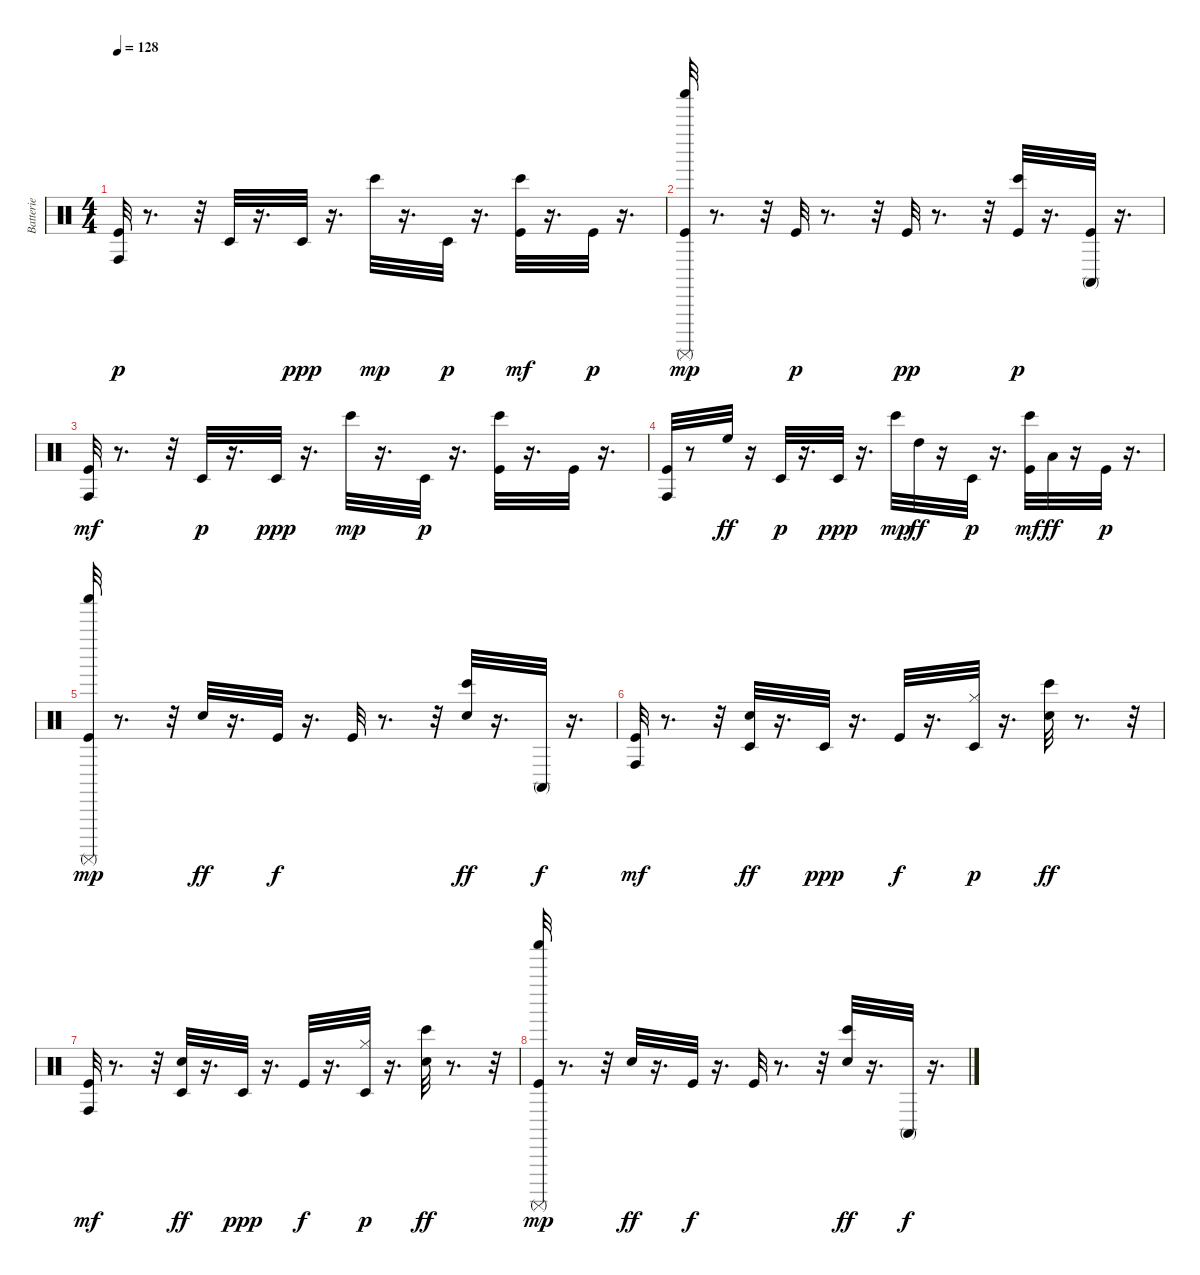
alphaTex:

\track ("Batterie" "Batterie") {instrument percussion}
\staff {score}
\articulation defaults
\ts (4 4)
\tempo 128
\clef neutral
\ks c
("Conga high (hit)" "Kick (hit)").32{dy p} r.8{d} r.32 "Timbale low (hit)".32 r.16{d} "Timbale low (hit)".32{dy ppp} r.16{d} "Bongo High (hit)".32{dy mp} r.16{d} "Timbale low (hit)".32{dy p} r.16{d} ("Kick (hit)" "Bongo High (hit)").32{dy mf} r.16{d} "Kick (hit)".32{dy p} r.16{d} |
("Kick (hit)" "Shaker (hit)" "Surdo (mute)").32{dy mp} r.8{d} r.32 "Kick (hit)".32{dy p} r.8{d} r.32 "Kick (hit)".32{dy pp} r.8{d} r.32 ("Bongo High (hit)" "Kick (hit)").32{dy p} r.16{d} ("Conga high (mute)" "Kick (hit)").32 r.16{d} |
("Kick (hit)" "Conga high (hit)").32{dy mf} r.8{d} r.32 "Timbale low (hit)".32{dy p} r.16{d} "Timbale low (hit)".32{dy ppp} r.16{d} "Bongo High (hit)".32{dy mp} r.16{d} "Timbale low (hit)".32{dy p} r.16{d} ("Bongo High (hit)" "Kick (hit)").32 r.16{d} "Kick (hit)".32 r.16{d} |
("Conga high (hit)" "Kick (hit)").32 r.8 "High Floor Tom (hit)".32{dy ff} r.16 "Timbale low (hit)".32{dy p} r.16{d} "Timbale low (hit)".32{dy ppp} r.16{d} "Bongo High (hit)".32{dy mp} "High Tom (hit)".32{dy ff} r.16 "Timbale low (hit)".32{dy p} r.16{d} ("Kick (hit)" "Bongo High (hit)").32{dy mf} "Low Tom (hit)".32{dy ff} r.16 "Kick (hit)".32{dy p} r.16{d} |
("Kick (hit)" "Shaker (hit)" "Surdo (mute)").32{dy mp} r.8{d} r.32 "Electric Snare (hit)".32{dy ff} r.16{d} "Kick (hit)".32{dy f} r.16{d} "Kick (hit)".32 r.8{d} r.32 ("Bongo High (hit)" "Electric Snare (hit)").32{dy ff} r.16{d} "Conga high (mute)".32{dy f} r.16{d} |
("Kick (hit)" "Conga high (hit)").32{dy mf} r.8{d} r.32 ("Timbale low (hit)" "Electric Snare (hit)").32{dy ff} r.16{d} "Timbale low (hit)".32{dy ppp} r.16{d} "Kick (hit)".32{dy f} r.16{d} ("Hi-Hat (closed)" "Timbale low (hit)").32{dy p} r.16{d} ("Bongo High (hit)" "Electric Snare (hit)").32{dy ff} r.8{d} r.32 |
("Kick (hit)" "Conga high (hit)").32{dy mf} r.8{d} r.32 ("Timbale low (hit)" "Electric Snare (hit)").32{dy ff} r.16{d} "Timbale low (hit)".32{dy ppp} r.16{d} "Kick (hit)".32{dy f} r.16{d} ("Hi-Hat (closed)" "Timbale low (hit)").32{dy p} r.16{d} ("Bongo High (hit)" "Electric Snare (hit)").32{dy ff} r.8{d} r.32 |
("Kick (hit)" "Shaker (hit)" "Surdo (mute)").32{dy mp} r.8{d} r.32 "Electric Snare (hit)".32{dy ff} r.16{d} "Kick (hit)".32{dy f} r.16{d} "Kick (hit)".32 r.8{d} r.32 ("Bongo High (hit)" "Electric Snare (hit)").32{dy ff} r.16{d} "Conga high (mute)".32{dy f} r.16{d}
